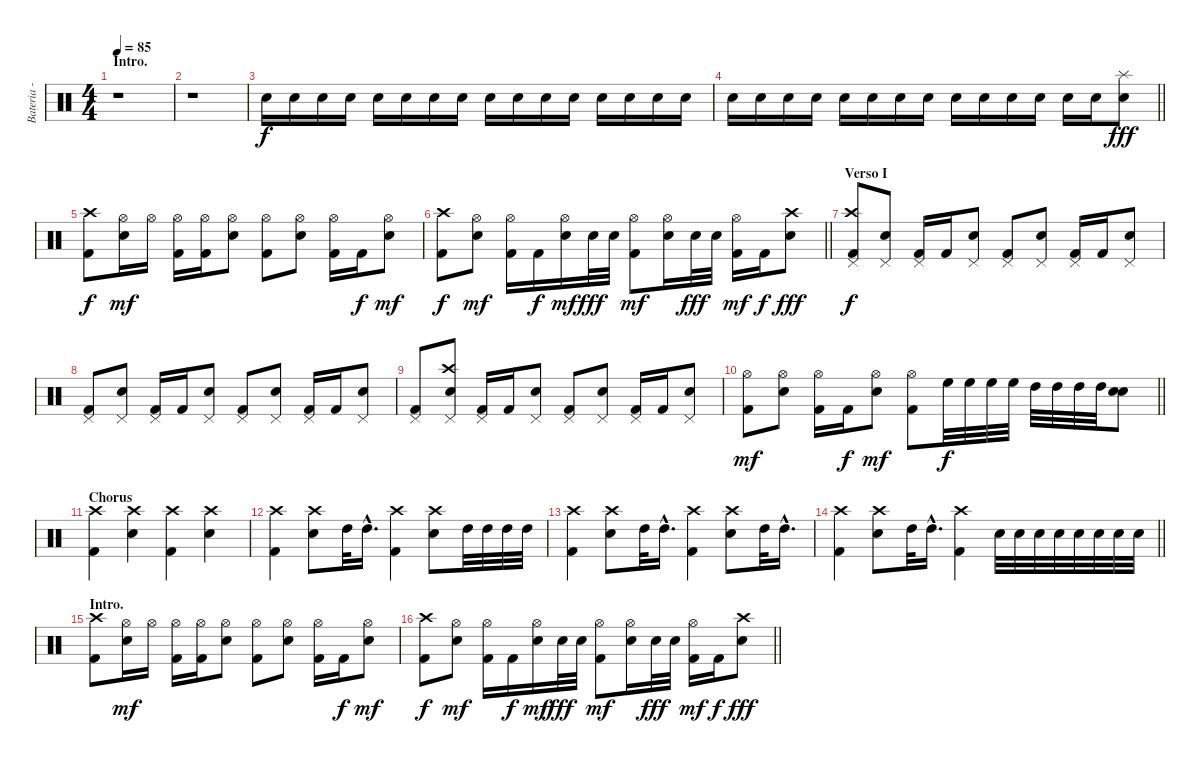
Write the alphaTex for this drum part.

\track ("Bateria - Larzon" "Bateria - ") {instrument percussion}
\staff {score}
\articulation defaults
\ts (4 4)
\section ("" "Intro.")
\tempo 85
\clef neutral
\ks c
r.1{dy f volume 7} |
r.1 |
"Snare (hit) 2".16{volume 12} "Snare (hit) 2".16 "Snare (hit) 2".16 "Snare (hit) 2".16 "Snare (hit) 2".16 "Snare (hit) 2".16 "Snare (hit) 2".16 "Snare (hit) 2".16 "Snare (hit) 2".16 "Snare (hit) 2".16 "Snare (hit) 2".16 "Snare (hit) 2".16 "Snare (hit) 2".16 "Snare (hit) 2".16 "Snare (hit) 2".16 "Snare (hit) 2".16 |
\barLineRight lightlight "Snare (hit) 2".16 "Snare (hit) 2".16 "Snare (hit) 2".16 "Snare (hit) 2".16 "Snare (hit) 2".16 "Snare (hit) 2".16 "Snare (hit) 2".16 "Snare (hit) 2".16 "Snare (hit) 2".16 "Snare (hit) 2".16 "Snare (hit) 2".16 "Snare (hit) 2".16 "Snare (hit) 2".16{volume 13} "Snare (hit) 2".16
("Splash (hit)" "Snare (hit) 2").8{dy fff} |
("Kick (hit) 2" "Crash high (hit)").8{dy f volume 13} ("Snare (hit) 2" "Hi-Hat (open)").16{dy mf} "Hi-Hat (open)".16 ("Kick (hit) 2" "Hi-Hat (open)").16 ("Kick (hit) 2" "Hi-Hat (open)").16 ("Snare (hit) 2" "Hi-Hat (open)").8 ("Kick (hit) 2" "Hi-Hat (open)").8 ("Snare (hit) 2" "Hi-Hat (open)").8 ("Kick (hit) 2" "Hi-Hat (open)").16 "Kick (hit) 2".16{dy f} ("Snare (hit) 2" "Hi-Hat (open)").8{dy mf} |
\barLineRight lightlight
("Kick (hit) 2" "Crash high (hit)").8{dy f} ("Snare (hit) 2" "Hi-Hat (open)").8{dy mf} ("Kick (hit) 2" "Hi-Hat (open)").16 "Kick (hit) 2".16{dy f} ("Snare (hit) 2" "Hi-Hat (open)").16{dy mf} "Snare (hit) 2".32{dy fff} "Snare (hit) 2".32 ("Kick (hit) 2" "Hi-Hat (open)").8{dy mf} ("Snare (hit) 2" "Hi-Hat (open)").16 "Snare (hit) 2".32{dy fff} "Snare (hit) 2".32 ("Kick (hit) 2" "Hi-Hat (open)").16{dy mf} "Kick (hit) 2".16{dy f} ("Snare (hit) 2" "Crash high (hit)").8{dy fff} |
\section ("" "Verso I")
("Kick (hit) 2" "Pedal Hi-Hat (hit)" "Crash high (hit)").8{dy f} ("Snare (hit) 2" "Pedal Hi-Hat (hit)").8 ("Kick (hit) 2" "Pedal Hi-Hat (hit)").16 "Kick (hit) 2".16 ("Snare (hit) 2" "Pedal Hi-Hat (hit)").8 ("Kick (hit) 2" "Pedal Hi-Hat (hit)").8 ("Snare (hit) 2" "Pedal Hi-Hat (hit)").8 ("Kick (hit) 2" "Pedal Hi-Hat (hit)").16 "Kick (hit) 2".16 ("Snare (hit) 2" "Pedal Hi-Hat (hit)").8 |
("Kick (hit) 2" "Pedal Hi-Hat (hit)").8 ("Snare (hit) 2" "Pedal Hi-Hat (hit)").8 ("Kick (hit) 2" "Pedal Hi-Hat (hit)").16 "Kick (hit) 2".16 ("Snare (hit) 2" "Pedal Hi-Hat (hit)").8 ("Kick (hit) 2" "Pedal Hi-Hat (hit)").8 ("Snare (hit) 2" "Pedal Hi-Hat (hit)").8 ("Kick (hit) 2" "Pedal Hi-Hat (hit)").16 "Kick (hit) 2".16 ("Snare (hit) 2" "Pedal Hi-Hat (hit)").8 |
("Kick (hit) 2" "Pedal Hi-Hat (hit)").8 ("Snare (hit) 2" "Pedal Hi-Hat (hit)" "Crash high (hit)").8 ("Kick (hit) 2" "Pedal Hi-Hat (hit)").16 "Kick (hit) 2".16 ("Snare (hit) 2" "Pedal Hi-Hat (hit)").8 ("Kick (hit) 2" "Pedal Hi-Hat (hit)").8 ("Snare (hit) 2" "Pedal Hi-Hat (hit)").8 ("Kick (hit) 2" "Pedal Hi-Hat (hit)").16 "Kick (hit) 2".16 ("Snare (hit) 2" "Pedal Hi-Hat (hit)").8 |
\barLineRight lightlight
("Kick (hit) 2" "Hi-Hat (open)").8{dy mf} ("Snare (hit) 2" "Hi-Hat (open)").8 ("Kick (hit) 2" "Hi-Hat (open)").16 "Kick (hit) 2".16{dy f} ("Snare (hit) 2" "Hi-Hat (open)").8{dy mf} ("Kick (hit) 2" "Hi-Hat (open)").8 "High Floor Tom (hit)".32{dy f} "High Floor Tom (hit)".32 "High Floor Tom (hit)".32 "High Floor Tom (hit)".32 "High Tom (hit)".32 "High Tom (hit)".32 "High Tom (hit)".32 "High Tom (hit)".32 ("Snare (hit) 2" "Snare (hit) 2").8 |
\section ("" "Chorus")
("Crash high (hit)" "Kick (hit) 2").4 ("Crash high (hit)" "Snare (hit) 2").4 ("Crash high (hit)" "Kick (hit) 2").4 ("Crash high (hit)" "Snare (hit) 2").4 |
("Crash high (hit)" "Kick (hit) 2").4 ("Crash high (hit)" "Snare (hit) 2").8 "High Tom (hit)".32 "High Tom (hit)"{hac}.16{d} ("Crash high (hit)" "Kick (hit) 2").4 ("Crash high (hit)" "Snare (hit) 2").8 "High Tom (hit)".32 "High Tom (hit)".32 "High Tom (hit)".32 "High Tom (hit)".32 |
("Crash high (hit)" "Kick (hit) 2").4 ("Crash high (hit)" "Snare (hit) 2").8 "High Tom (hit)".32 "High Tom (hit)"{hac}.16{d} ("Crash high (hit)" "Kick (hit) 2").4 ("Crash high (hit)" "Snare (hit) 2").8 "High Tom (hit)".32 "High Tom (hit)"{hac}.16{d} |
\barLineRight lightlight
("Crash high (hit)" "Kick (hit) 2").4 ("Crash high (hit)" "Snare (hit) 2").8 "High Tom (hit)".32 "High Tom (hit)"{hac}.16{d} ("Crash high (hit)" "Kick (hit) 2").4 "Snare (hit) 2".32 "Snare (hit) 2".32 "Snare (hit) 2".32 "Snare (hit) 2".32 "Snare (hit) 2".32 "Snare (hit) 2".32 "Snare (hit) 2".32 "Snare (hit) 2".32 |
\section ("" "Intro.")
("Kick (hit) 2" "Crash high (hit)").8{volume 13} ("Snare (hit) 2" "Hi-Hat (open)").16{dy mf} "Hi-Hat (open)".16 ("Kick (hit) 2" "Hi-Hat (open)").16 ("Kick (hit) 2" "Hi-Hat (open)").16 ("Snare (hit) 2" "Hi-Hat (open)").8 ("Kick (hit) 2" "Hi-Hat (open)").8 ("Snare (hit) 2" "Hi-Hat (open)").8 ("Kick (hit) 2" "Hi-Hat (open)").16 "Kick (hit) 2".16{dy f} ("Snare (hit) 2" "Hi-Hat (open)").8{dy mf} |
\barLineRight lightlight
("Kick (hit) 2" "Crash high (hit)").8{dy f} ("Snare (hit) 2" "Hi-Hat (open)").8{dy mf} ("Kick (hit) 2" "Hi-Hat (open)").16 "Kick (hit) 2".16{dy f} ("Snare (hit) 2" "Hi-Hat (open)").16{dy mf} "Snare (hit) 2".32{dy fff} "Snare (hit) 2".32 ("Kick (hit) 2" "Hi-Hat (open)").8{dy mf} ("Snare (hit) 2" "Hi-Hat (open)").16 "Snare (hit) 2".32{dy fff} "Snare (hit) 2".32 ("Kick (hit) 2" "Hi-Hat (open)").16{dy mf} "Kick (hit) 2".16{dy f} ("Snare (hit) 2" "Crash high (hit)").8{dy fff}
